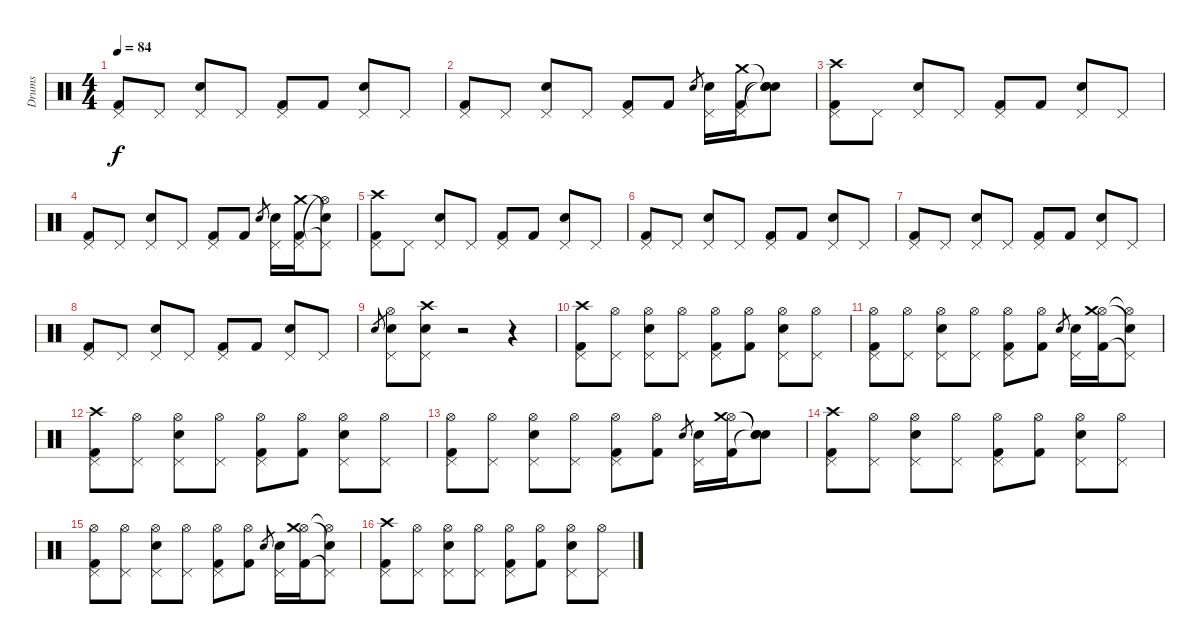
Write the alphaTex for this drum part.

\track ("Drums" "Drums") {instrument percussion}
\staff {score}
\articulation defaults
\ts (4 4)
\tempo 84
\clef neutral
\ks c
("Kick (hit) 2" "Pedal Hi-Hat (hit)").8{dy f} "Pedal Hi-Hat (hit)".8 ("Snare (hit) 2" "Pedal Hi-Hat (hit)").8 "Pedal Hi-Hat (hit)".8 ("Kick (hit) 2" "Pedal Hi-Hat (hit)").8 "Kick (hit) 2".8 ("Snare (hit) 2" "Pedal Hi-Hat (hit)").8 "Pedal Hi-Hat (hit)".8 |
("Kick (hit) 2" "Pedal Hi-Hat (hit)").8 "Pedal Hi-Hat (hit)".8 ("Snare (hit) 2" "Pedal Hi-Hat (hit)").8 "Pedal Hi-Hat (hit)".8 ("Kick (hit) 2" "Pedal Hi-Hat (hit)").8 "Kick (hit) 2".8 "Snare (hit) 2".8{gr} ("Snare (hit) 2" "Pedal Hi-Hat (hit)").16 ("Kick (hit) 2" "Pedal Hi-Hat (hit)" "Crash medium (hit)").16 ("Snare (hit)"{t} "Snare (hit)"{t} "Snare (hit)"{t}).8 |
("Kick (hit) 2" "Pedal Hi-Hat (hit)" "Crash high (hit)").8 "Pedal Hi-Hat (hit)".8 ("Snare (hit) 2" "Pedal Hi-Hat (hit)").8 "Pedal Hi-Hat (hit)".8 ("Kick (hit) 2" "Pedal Hi-Hat (hit)").8 "Kick (hit) 2".8 ("Snare (hit) 2" "Pedal Hi-Hat (hit)").8 "Pedal Hi-Hat (hit)".8 |
("Kick (hit) 2" "Pedal Hi-Hat (hit)").8 "Pedal Hi-Hat (hit)".8 ("Snare (hit) 2" "Pedal Hi-Hat (hit)").8 "Pedal Hi-Hat (hit)".8 ("Kick (hit) 2" "Pedal Hi-Hat (hit)").8 "Kick (hit) 2".8 "Snare (hit) 2".8{gr} ("Snare (hit) 2" "Pedal Hi-Hat (hit)").16 ("Kick (hit) 2" "Pedal Hi-Hat (hit)" "Crash medium (hit)").16 ("Pedal Hi-Hat (hit)"{t} "Hi-Hat (open)"{t} "Snare (hit)"{t}).8 |
("Kick (hit) 2" "Pedal Hi-Hat (hit)" "Crash high (hit)").8 "Pedal Hi-Hat (hit)".8 ("Snare (hit) 2" "Pedal Hi-Hat (hit)").8 "Pedal Hi-Hat (hit)".8 ("Kick (hit) 2" "Pedal Hi-Hat (hit)").8 "Kick (hit) 2".8 ("Snare (hit) 2" "Pedal Hi-Hat (hit)").8 "Pedal Hi-Hat (hit)".8 |
("Kick (hit) 2" "Pedal Hi-Hat (hit)").8 "Pedal Hi-Hat (hit)".8 ("Snare (hit) 2" "Pedal Hi-Hat (hit)").8 "Pedal Hi-Hat (hit)".8 ("Kick (hit) 2" "Pedal Hi-Hat (hit)").8 "Kick (hit) 2".8 ("Snare (hit) 2" "Pedal Hi-Hat (hit)").8 "Pedal Hi-Hat (hit)".8 |
("Kick (hit) 2" "Pedal Hi-Hat (hit)").8 "Pedal Hi-Hat (hit)".8 ("Snare (hit) 2" "Pedal Hi-Hat (hit)").8 "Pedal Hi-Hat (hit)".8 ("Kick (hit) 2" "Pedal Hi-Hat (hit)").8 "Kick (hit) 2".8 ("Snare (hit) 2" "Pedal Hi-Hat (hit)").8 "Pedal Hi-Hat (hit)".8 |
("Kick (hit) 2" "Pedal Hi-Hat (hit)").8 "Pedal Hi-Hat (hit)".8 ("Snare (hit) 2" "Pedal Hi-Hat (hit)").8 "Pedal Hi-Hat (hit)".8 ("Kick (hit) 2" "Pedal Hi-Hat (hit)").8 "Kick (hit) 2".8 ("Snare (hit) 2" "Pedal Hi-Hat (hit)").8 "Pedal Hi-Hat (hit)".8 |
"Snare (hit) 2".8{gr} ("Snare (hit) 2" "Pedal Hi-Hat (hit)" "Hi-Hat (open)").8 ("Snare (hit) 2" "Pedal Hi-Hat (hit)" "Crash high (hit)").8 r.2 r.4 |
("Kick (hit) 2" "Pedal Hi-Hat (hit)" "Crash high (hit)").8 ("Pedal Hi-Hat (hit)" "Hi-Hat (open)").8 ("Snare (hit) 2" "Pedal Hi-Hat (hit)" "Hi-Hat (open)").8 ("Pedal Hi-Hat (hit)" "Hi-Hat (open)").8 ("Kick (hit) 2" "Pedal Hi-Hat (hit)" "Hi-Hat (open)").8 ("Kick (hit) 2" "Hi-Hat (open)").8 ("Snare (hit) 2" "Pedal Hi-Hat (hit)" "Hi-Hat (open)").8 ("Pedal Hi-Hat (hit)" "Hi-Hat (open)").8 |
("Kick (hit) 2" "Pedal Hi-Hat (hit)" "Hi-Hat (open)").8 ("Pedal Hi-Hat (hit)" "Hi-Hat (open)").8 ("Snare (hit) 2" "Pedal Hi-Hat (hit)" "Hi-Hat (open)").8 ("Pedal Hi-Hat (hit)" "Hi-Hat (open)").8 ("Kick (hit) 2" "Pedal Hi-Hat (hit)" "Hi-Hat (open)").8 ("Kick (hit) 2" "Hi-Hat (open)").8 "Snare (hit) 2".8{gr} ("Snare (hit) 2" "Pedal Hi-Hat (hit)").16 ("Kick (hit) 2" "Hi-Hat (open)" "Crash medium (hit)").16 ("Pedal Hi-Hat (hit)"{t} "Hi-Hat (open)"{t} "Snare (hit)"{t}).8 |
("Kick (hit) 2" "Pedal Hi-Hat (hit)" "Crash high (hit)").8 ("Pedal Hi-Hat (hit)" "Hi-Hat (open)").8 ("Snare (hit) 2" "Pedal Hi-Hat (hit)" "Hi-Hat (open)").8 ("Pedal Hi-Hat (hit)" "Hi-Hat (open)").8 ("Kick (hit) 2" "Pedal Hi-Hat (hit)" "Hi-Hat (open)").8 ("Kick (hit) 2" "Hi-Hat (open)").8 ("Snare (hit) 2" "Pedal Hi-Hat (hit)" "Hi-Hat (open)").8 ("Pedal Hi-Hat (hit)" "Hi-Hat (open)").8 |
("Kick (hit) 2" "Pedal Hi-Hat (hit)" "Hi-Hat (open)").8 ("Pedal Hi-Hat (hit)" "Hi-Hat (open)").8 ("Snare (hit) 2" "Pedal Hi-Hat (hit)" "Hi-Hat (open)").8 ("Pedal Hi-Hat (hit)" "Hi-Hat (open)").8 ("Kick (hit) 2" "Pedal Hi-Hat (hit)" "Hi-Hat (open)").8 ("Kick (hit) 2" "Hi-Hat (open)").8 "Snare (hit) 2".8{gr} ("Snare (hit) 2" "Pedal Hi-Hat (hit)").16 ("Kick (hit) 2" "Hi-Hat (open)" "Crash medium (hit)").16 ("Snare (hit)"{t} "Snare (hit)"{t} "Snare (hit)"{t}).8 |
("Kick (hit) 2" "Pedal Hi-Hat (hit)" "Crash high (hit)").8 ("Pedal Hi-Hat (hit)" "Hi-Hat (open)").8 ("Snare (hit) 2" "Pedal Hi-Hat (hit)" "Hi-Hat (open)").8 ("Pedal Hi-Hat (hit)" "Hi-Hat (open)").8 ("Kick (hit) 2" "Pedal Hi-Hat (hit)" "Hi-Hat (open)").8 ("Kick (hit) 2" "Hi-Hat (open)").8 ("Snare (hit) 2" "Pedal Hi-Hat (hit)" "Hi-Hat (open)").8 ("Pedal Hi-Hat (hit)" "Hi-Hat (open)").8 |
("Kick (hit) 2" "Pedal Hi-Hat (hit)" "Hi-Hat (open)").8 ("Pedal Hi-Hat (hit)" "Hi-Hat (open)").8 ("Snare (hit) 2" "Pedal Hi-Hat (hit)" "Hi-Hat (open)").8 ("Pedal Hi-Hat (hit)" "Hi-Hat (open)").8 ("Kick (hit) 2" "Pedal Hi-Hat (hit)" "Hi-Hat (open)").8 ("Kick (hit) 2" "Hi-Hat (open)").8 "Snare (hit) 2".8{gr} ("Snare (hit) 2" "Pedal Hi-Hat (hit)").16 ("Kick (hit) 2" "Hi-Hat (open)" "Crash medium (hit)").16 ("Pedal Hi-Hat (hit)"{t} "Hi-Hat (open)"{t} "Snare (hit)"{t}).8 |
("Kick (hit) 2" "Pedal Hi-Hat (hit)" "Crash high (hit)").8 ("Pedal Hi-Hat (hit)" "Hi-Hat (open)").8 ("Snare (hit) 2" "Pedal Hi-Hat (hit)" "Hi-Hat (open)").8 ("Pedal Hi-Hat (hit)" "Hi-Hat (open)").8 ("Kick (hit) 2" "Pedal Hi-Hat (hit)" "Hi-Hat (open)").8 ("Kick (hit) 2" "Hi-Hat (open)").8 ("Snare (hit) 2" "Pedal Hi-Hat (hit)" "Hi-Hat (open)").8 ("Pedal Hi-Hat (hit)" "Hi-Hat (open)").8
